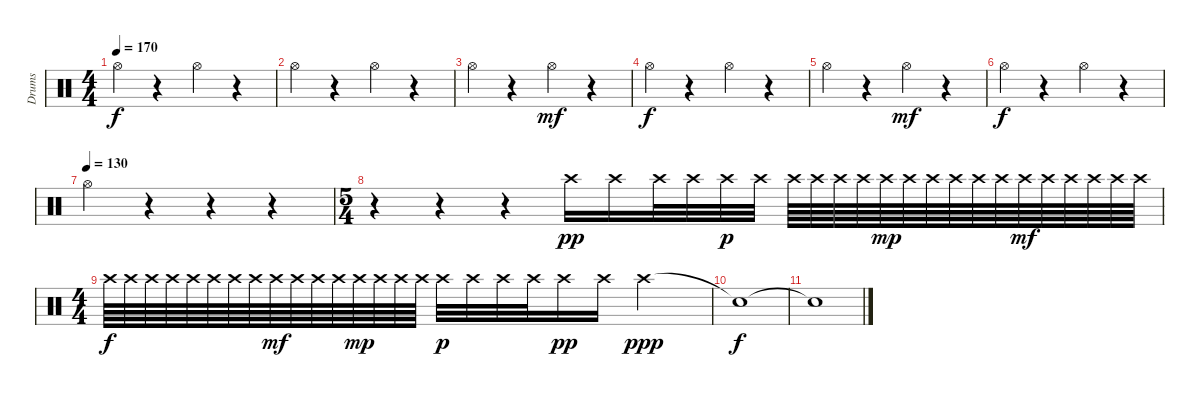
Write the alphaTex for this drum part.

\track ("Drums" "Drums") {instrument percussion}
\staff {score}
\articulation defaults
\ts (4 4)
\tempo 170
\clef neutral
\ks c "Hi-Hat (open)".4{dy f}
r.4 "Hi-Hat (open)".4 r.4 |
"Hi-Hat (open)".4 r.4 "Hi-Hat (open)".4 r.4 |
"Hi-Hat (open)".4 r.4 "Hi-Hat (open)".4{dy mf} r.4 |
"Hi-Hat (open)".4{dy f} r.4 "Hi-Hat (open)".4 r.4 |
"Hi-Hat (open)".4 r.4 "Hi-Hat (open)".4{dy mf} r.4 |
"Hi-Hat (open)".4{dy f} r.4 "Hi-Hat (open)".4 r.4 |
\tempo (130)
"Hi-Hat (open)".4 r.4 r.4 r.4 |
\ts (5 4)
r.4 r.4 r.4 "Crash high (hit)".16{dy pp} "Crash high (hit)".16 "Crash high (hit)".32 "Crash high (hit)".32 "Crash high (hit)".32{dy p} "Crash high (hit)".32 "Crash high (hit)".64 "Crash high (hit)".64 "Crash high (hit)".64 "Crash high (hit)".64 "Crash high (hit)".64{dy mp} "Crash high (hit)".64 "Crash high (hit)".64 "Crash high (hit)".64 "Crash high (hit)".64 "Crash high (hit)".64 "Crash high (hit)".64{dy mf} "Crash high (hit)".64 "Crash high (hit)".64 "Crash high (hit)".64 "Crash high (hit)".64 "Crash high (hit)".64 |
\ts (4 4)
"Crash high (hit)".64{dy f} "Crash high (hit)".64 "Crash high (hit)".64 "Crash high (hit)".64 "Crash high (hit)".64 "Crash high (hit)".64 "Crash high (hit)".64 "Crash high (hit)".64 "Crash high (hit)".64{dy mf} "Crash high (hit)".64 "Crash high (hit)".64 "Crash high (hit)".64 "Crash high (hit)".64{dy mp} "Crash high (hit)".64 "Crash high (hit)".64 "Crash high (hit)".64 "Crash high (hit)".32{dy p} "Crash high (hit)".32 "Crash high (hit)".32 "Crash high (hit)".32 "Crash high (hit)".16{dy pp} "Crash high (hit)".16 "Crash high (hit)".2{dy ppp} |
"Snare (hit)"{t}.1{dy f} |
"Snare (hit)"{t}.1
